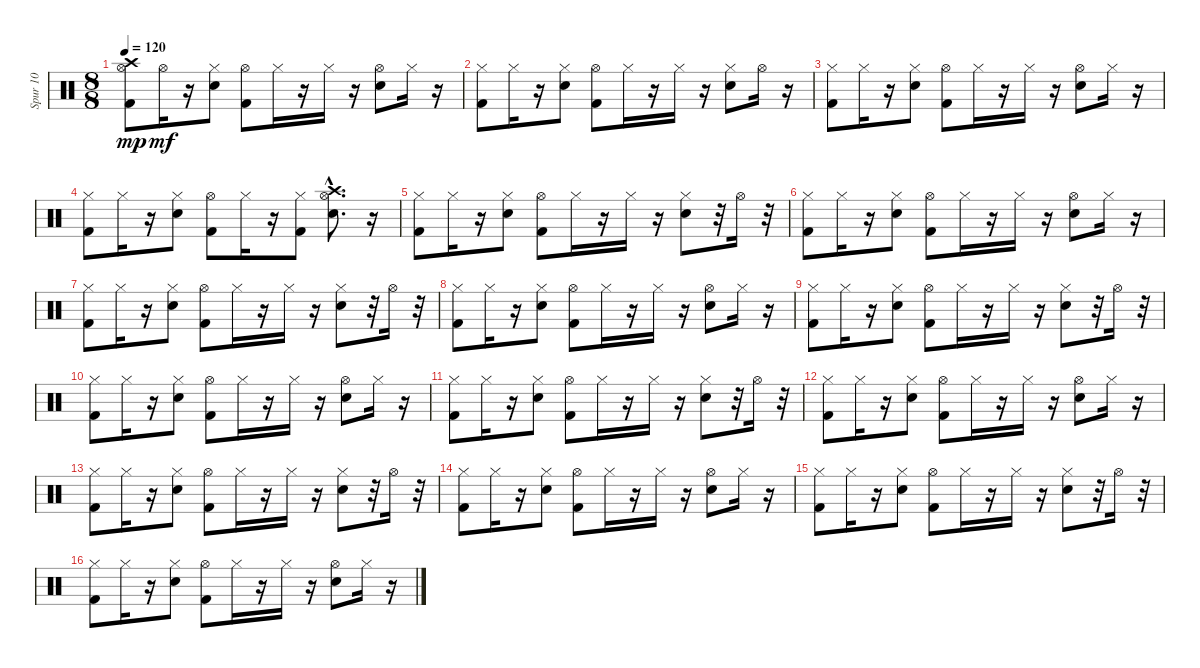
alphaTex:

\track ("Spur 10" "Spur 10") {instrument percussion}
\staff {score}
\articulation defaults
\ts (8 8)
\tempo 120
\clef neutral
\ks c
("Hi-Hat (open)" "Kick (hit) 2" "Crash high (hit)").8{dy mp} "Hi-Hat (open)".16{dy mf} r.16 ("Hi-Hat (closed)" "Metronome (bell)").8 ("Kick (hit) 2" "Hi-Hat (open)").8 "Hi-Hat (closed)".16 r.16 "Hi-Hat (closed)".16 r.16 ("Hi-Hat (open)" "Metronome (bell)").8 "Hi-Hat (closed)".16 r.16 |
("Hi-Hat (closed)" "Kick (hit) 2").8 "Hi-Hat (closed)".16 r.16 ("Hi-Hat (closed)" "Metronome (bell)").8 ("Kick (hit) 2" "Hi-Hat (open)").8 "Hi-Hat (closed)".16 r.16 "Hi-Hat (closed)".16 r.16 ("Hi-Hat (closed)" "Metronome (bell)").8 "Hi-Hat (open)".16 r.16 |
("Hi-Hat (closed)" "Kick (hit) 2").8 "Hi-Hat (closed)".16 r.16 ("Hi-Hat (closed)" "Metronome (bell)").8 ("Kick (hit) 2" "Hi-Hat (open)").8 "Hi-Hat (closed)".16 r.16 "Hi-Hat (closed)".16 r.16 ("Hi-Hat (open)" "Metronome (bell)").8 "Hi-Hat (closed)".16 r.16 |
("Hi-Hat (closed)" "Kick (hit) 2").8 "Hi-Hat (closed)".16 r.16 ("Hi-Hat (closed)" "Metronome (bell)").8 ("Kick (hit) 2" "Hi-Hat (open)").8 "Hi-Hat (closed)".16 r.16 ("Hi-Hat (closed)" "Kick (hit) 2").8 ("Crash high (hit)"{hac} "Hi-Hat (open)" "Metronome (bell)").8{d} r.16 |
("Hi-Hat (closed)" "Kick (hit) 2").8 "Hi-Hat (closed)".16 r.16 ("Hi-Hat (closed)" "Metronome (bell)").8 ("Kick (hit) 2" "Hi-Hat (open)").8 "Hi-Hat (closed)".16 r.16 "Hi-Hat (closed)".16 r.16 ("Hi-Hat (closed)" "Metronome (bell)").8 r.32 "Hi-Hat (open)".16 r.32 |
("Hi-Hat (closed)" "Kick (hit) 2").8 "Hi-Hat (closed)".16 r.16 ("Hi-Hat (closed)" "Metronome (bell)").8 ("Kick (hit) 2" "Hi-Hat (open)").8 "Hi-Hat (closed)".16 r.16 "Hi-Hat (closed)".16 r.16 ("Hi-Hat (open)" "Metronome (bell)").8 "Hi-Hat (closed)".16 r.16 |
("Hi-Hat (closed)" "Kick (hit) 2").8 "Hi-Hat (closed)".16 r.16 ("Hi-Hat (closed)" "Metronome (bell)").8 ("Kick (hit) 2" "Hi-Hat (open)").8 "Hi-Hat (closed)".16 r.16 "Hi-Hat (closed)".16 r.16 ("Hi-Hat (closed)" "Metronome (bell)").8 r.32 "Hi-Hat (open)".16 r.32 |
("Hi-Hat (closed)" "Kick (hit) 2").8 "Hi-Hat (closed)".16 r.16 ("Hi-Hat (closed)" "Metronome (bell)").8 ("Kick (hit) 2" "Hi-Hat (open)").8 "Hi-Hat (closed)".16 r.16 "Hi-Hat (closed)".16 r.16 ("Hi-Hat (open)" "Metronome (bell)").8 "Hi-Hat (closed)".16 r.16 |
("Hi-Hat (closed)" "Kick (hit) 2").8 "Hi-Hat (closed)".16 r.16 ("Hi-Hat (closed)" "Metronome (bell)").8 ("Kick (hit) 2" "Hi-Hat (open)").8 "Hi-Hat (closed)".16 r.16 "Hi-Hat (closed)".16 r.16 ("Hi-Hat (closed)" "Metronome (bell)").8 r.32 "Hi-Hat (open)".16 r.32 |
("Hi-Hat (closed)" "Kick (hit) 2").8 "Hi-Hat (closed)".16 r.16 ("Hi-Hat (closed)" "Metronome (bell)").8 ("Kick (hit) 2" "Hi-Hat (open)").8 "Hi-Hat (closed)".16 r.16 "Hi-Hat (closed)".16 r.16 ("Hi-Hat (open)" "Metronome (bell)").8 "Hi-Hat (closed)".16 r.16 |
("Hi-Hat (closed)" "Kick (hit) 2").8 "Hi-Hat (closed)".16 r.16 ("Hi-Hat (closed)" "Metronome (bell)").8 ("Kick (hit) 2" "Hi-Hat (open)").8 "Hi-Hat (closed)".16 r.16 "Hi-Hat (closed)".16 r.16 ("Hi-Hat (closed)" "Metronome (bell)").8 r.32 "Hi-Hat (open)".16 r.32 |
("Hi-Hat (closed)" "Kick (hit) 2").8 "Hi-Hat (closed)".16 r.16 ("Hi-Hat (closed)" "Metronome (bell)").8 ("Kick (hit) 2" "Hi-Hat (open)").8 "Hi-Hat (closed)".16 r.16 "Hi-Hat (closed)".16 r.16 ("Hi-Hat (open)" "Metronome (bell)").8 "Hi-Hat (closed)".16 r.16 |
("Hi-Hat (closed)" "Kick (hit) 2").8 "Hi-Hat (closed)".16 r.16 ("Hi-Hat (closed)" "Metronome (bell)").8 ("Kick (hit) 2" "Hi-Hat (open)").8 "Hi-Hat (closed)".16 r.16 "Hi-Hat (closed)".16 r.16 ("Hi-Hat (closed)" "Metronome (bell)").8 r.32 "Hi-Hat (open)".16 r.32 |
("Hi-Hat (closed)" "Kick (hit) 2").8 "Hi-Hat (closed)".16 r.16 ("Hi-Hat (closed)" "Metronome (bell)").8 ("Kick (hit) 2" "Hi-Hat (open)").8 "Hi-Hat (closed)".16 r.16 "Hi-Hat (closed)".16 r.16 ("Hi-Hat (open)" "Metronome (bell)").8 "Hi-Hat (closed)".16 r.16 |
("Hi-Hat (closed)" "Kick (hit) 2").8 "Hi-Hat (closed)".16 r.16 ("Hi-Hat (closed)" "Metronome (bell)").8 ("Kick (hit) 2" "Hi-Hat (open)").8 "Hi-Hat (closed)".16 r.16 "Hi-Hat (closed)".16 r.16 ("Hi-Hat (closed)" "Metronome (bell)").8 r.32 "Hi-Hat (open)".16 r.32 |
("Hi-Hat (closed)" "Kick (hit) 2").8 "Hi-Hat (closed)".16 r.16 ("Hi-Hat (closed)" "Metronome (bell)").8 ("Kick (hit) 2" "Hi-Hat (open)").8 "Hi-Hat (closed)".16 r.16 "Hi-Hat (closed)".16 r.16 ("Hi-Hat (open)" "Metronome (bell)").8 "Hi-Hat (closed)".16 r.16
